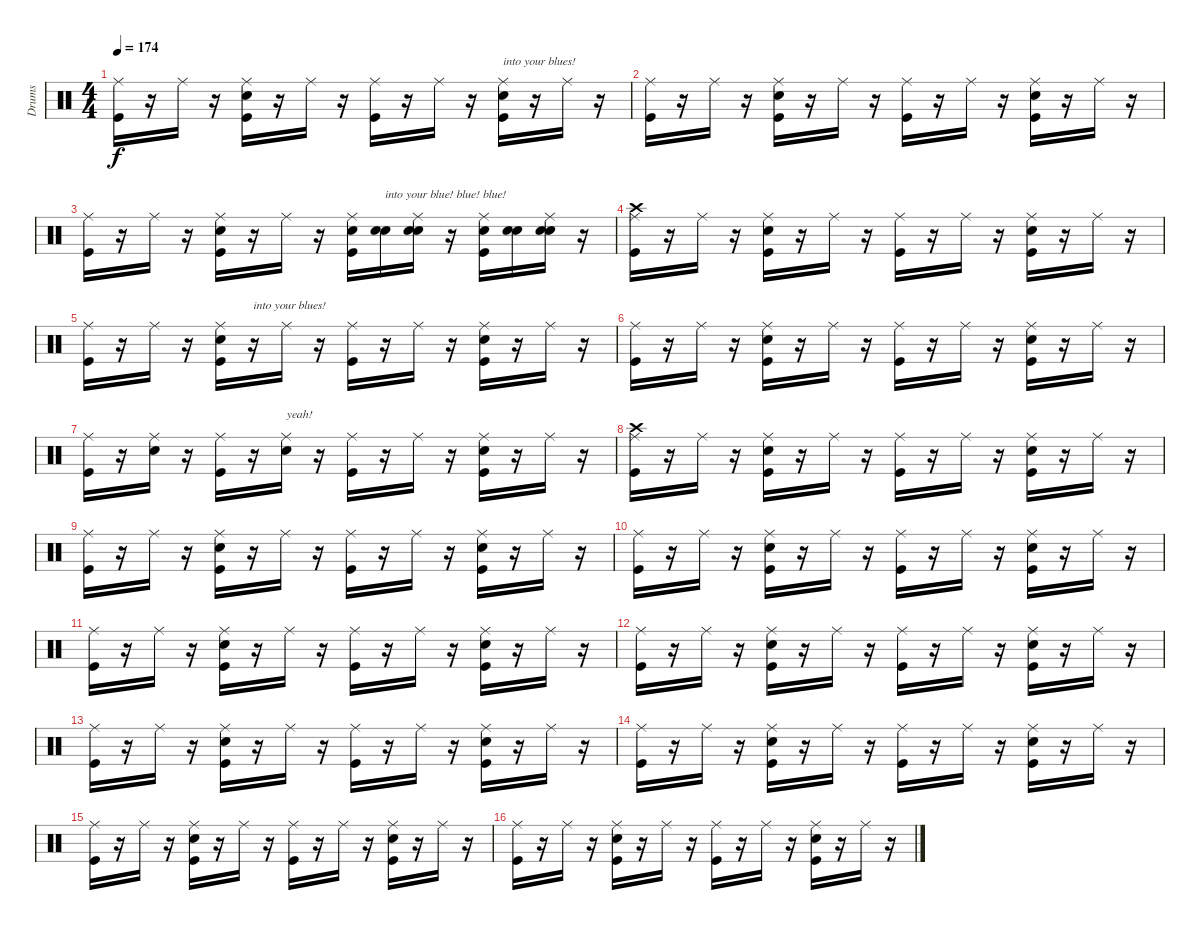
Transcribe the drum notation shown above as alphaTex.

\track ("Drums" "Drums") {instrument percussion}
\staff {score}
\articulation defaults
\ts (4 4)
\tempo 174
\clef neutral
\ks c
("Kick (hit)" "Ride (middle)").16{dy f} r.16 "Ride (middle)".16 r.16 ("Kick (hit)" "Snare (hit) 2" "Ride (middle)").16 r.16 "Ride (middle)".16 r.16 ("Kick (hit)" "Ride (middle)").16 r.16 "Ride (middle)".16 r.16 ("Kick (hit)" "Snare (hit) 2" "Ride (middle)").16{txt "into your blues!"} r.16 "Ride (middle)".16 r.16 |
("Kick (hit)" "Ride (middle)").16 r.16 "Ride (middle)".16 r.16 ("Kick (hit)" "Snare (hit) 2" "Ride (middle)").16 r.16 "Ride (middle)".16 r.16 ("Kick (hit)" "Ride (middle)").16 r.16 "Ride (middle)".16 r.16 ("Kick (hit)" "Snare (hit) 2" "Ride (middle)").16 r.16 "Ride (middle)".16 r.16 |
("Kick (hit)" "Ride (middle)").16 r.16 "Ride (middle)".16 r.16 ("Kick (hit)" "Snare (hit) 2" "Ride (middle)").16 r.16 "Ride (middle)".16 r.16 ("Snare (hit) 2" "Kick (hit)" "Ride (middle)").16 ("Snare (hit)" "Snare (hit) 2").16{txt "into your blue! blue! blue!"} ("Snare (hit)" "Snare (hit) 2" "Ride (middle)").16 r.16 ("Snare (hit) 2" "Kick (hit)" "Ride (middle)").16 ("Snare (hit)" "Snare (hit) 2").16 ("Snare (hit)" "Snare (hit) 2" "Ride (middle)").16 r.16 |
("Crash high (hit)" "Kick (hit)" "Ride (middle)").16 r.16 "Ride (middle)".16 r.16 ("Kick (hit)" "Snare (hit) 2" "Ride (middle)").16 r.16 "Ride (middle)".16 r.16 ("Kick (hit)" "Ride (middle)").16 r.16 "Ride (middle)".16 r.16 ("Kick (hit)" "Snare (hit) 2" "Ride (middle)").16 r.16 "Ride (middle)".16 r.16 |
("Kick (hit)" "Ride (middle)").16 r.16 "Ride (middle)".16 r.16 ("Kick (hit)" "Snare (hit) 2" "Ride (middle)").16 r.16{txt "into your blues!"} "Ride (middle)".16 r.16 ("Kick (hit)" "Ride (middle)").16 r.16 "Ride (middle)".16 r.16 ("Kick (hit)" "Snare (hit) 2" "Ride (middle)").16 r.16 "Ride (middle)".16 r.16 |
("Kick (hit)" "Ride (middle)").16 r.16 "Ride (middle)".16 r.16 ("Kick (hit)" "Snare (hit) 2" "Ride (middle)").16 r.16 "Ride (middle)".16 r.16 ("Kick (hit)" "Ride (middle)").16 r.16 "Ride (middle)".16 r.16 ("Kick (hit)" "Snare (hit) 2" "Ride (middle)").16 r.16 "Ride (middle)".16 r.16 |
("Kick (hit)" "Ride (middle)").16 r.16 ("Snare (hit) 2" "Ride (middle)").16 r.16 ("Kick (hit)" "Ride (middle)").16 r.16 ("Snare (hit) 2" "Ride (middle)").16{txt "yeah!"} r.16 ("Kick (hit)" "Ride (middle)").16 r.16 "Ride (middle)".16 r.16 ("Snare (hit) 2" "Kick (hit)" "Ride (middle)").16 r.16 "Ride (middle)".16 r.16 |
("Crash high (hit)" "Kick (hit)" "Ride (middle)").16 r.16 "Ride (middle)".16 r.16 ("Kick (hit)" "Snare (hit) 2" "Ride (middle)").16 r.16 "Ride (middle)".16 r.16 ("Kick (hit)" "Ride (middle)").16 r.16 "Ride (middle)".16 r.16 ("Kick (hit)" "Snare (hit) 2" "Ride (middle)").16 r.16 "Ride (middle)".16 r.16 |
("Kick (hit)" "Ride (middle)").16 r.16 "Ride (middle)".16 r.16 ("Kick (hit)" "Snare (hit) 2" "Ride (middle)").16 r.16 "Ride (middle)".16 r.16 ("Kick (hit)" "Ride (middle)").16 r.16 "Ride (middle)".16 r.16 ("Kick (hit)" "Snare (hit) 2" "Ride (middle)").16 r.16 "Ride (middle)".16 r.16 |
("Kick (hit)" "Ride (middle)").16 r.16 "Ride (middle)".16 r.16 ("Kick (hit)" "Snare (hit) 2" "Ride (middle)").16 r.16 "Ride (middle)".16 r.16 ("Kick (hit)" "Ride (middle)").16 r.16 "Ride (middle)".16 r.16 ("Kick (hit)" "Snare (hit) 2" "Ride (middle)").16 r.16 "Ride (middle)".16 r.16 |
("Kick (hit)" "Ride (middle)").16 r.16 "Ride (middle)".16 r.16 ("Kick (hit)" "Snare (hit) 2" "Ride (middle)").16 r.16 "Ride (middle)".16 r.16 ("Kick (hit)" "Ride (middle)").16 r.16 "Ride (middle)".16 r.16 ("Kick (hit)" "Snare (hit) 2" "Ride (middle)").16 r.16 "Ride (middle)".16 r.16 |
("Kick (hit)" "Ride (middle)").16 r.16 "Ride (middle)".16 r.16 ("Kick (hit)" "Snare (hit) 2" "Ride (middle)").16 r.16 "Ride (middle)".16 r.16 ("Kick (hit)" "Ride (middle)").16 r.16 "Ride (middle)".16 r.16 ("Kick (hit)" "Snare (hit) 2" "Ride (middle)").16 r.16 "Ride (middle)".16 r.16 |
("Kick (hit)" "Ride (middle)").16 r.16 "Ride (middle)".16 r.16 ("Kick (hit)" "Snare (hit) 2" "Ride (middle)").16 r.16 "Ride (middle)".16 r.16 ("Kick (hit)" "Ride (middle)").16 r.16 "Ride (middle)".16 r.16 ("Kick (hit)" "Snare (hit) 2" "Ride (middle)").16 r.16 "Ride (middle)".16 r.16 |
("Kick (hit)" "Ride (middle)").16 r.16 "Ride (middle)".16 r.16 ("Kick (hit)" "Snare (hit) 2" "Ride (middle)").16 r.16 "Ride (middle)".16 r.16 ("Kick (hit)" "Ride (middle)").16 r.16 "Ride (middle)".16 r.16 ("Kick (hit)" "Snare (hit) 2" "Ride (middle)").16 r.16 "Ride (middle)".16 r.16 |
("Kick (hit)" "Ride (middle)").16 r.16 "Ride (middle)".16 r.16 ("Kick (hit)" "Snare (hit) 2" "Ride (middle)").16 r.16 "Ride (middle)".16 r.16 ("Kick (hit)" "Ride (middle)").16 r.16 "Ride (middle)".16 r.16 ("Kick (hit)" "Snare (hit) 2" "Ride (middle)").16 r.16 "Ride (middle)".16 r.16 |
("Kick (hit)" "Ride (middle)").16 r.16 "Ride (middle)".16 r.16 ("Kick (hit)" "Snare (hit) 2" "Ride (middle)").16 r.16 "Ride (middle)".16 r.16 ("Kick (hit)" "Ride (middle)").16 r.16 "Ride (middle)".16 r.16 ("Kick (hit)" "Snare (hit) 2" "Ride (middle)").16 r.16 "Ride (middle)".16 r.16
